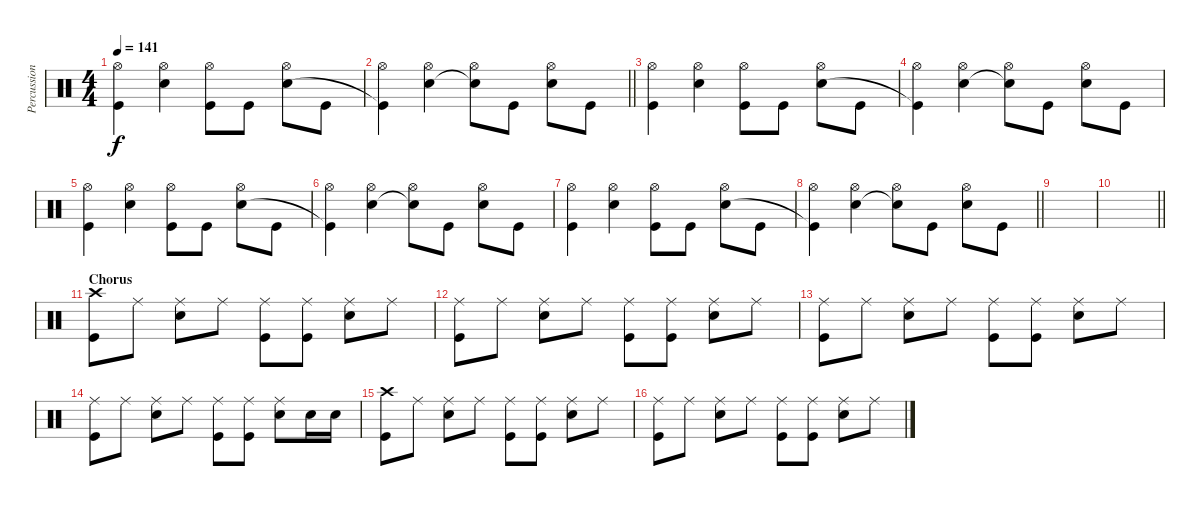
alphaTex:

\track ("Percussion" "Percussion") {instrument percussion}
\staff {score}
\articulation defaults
\ts (4 4)
\tempo 141
\clef neutral
\ks c
("Kick (hit)" "Hi-Hat (open)").4{dy f} ("Snare (hit) 2" "Hi-Hat (open)").4 ("Hi-Hat (open)" "Kick (hit)").8 "Kick (hit)".8 ("Hi-Hat (open)" "Snare (hit) 2").8 "Kick (hit)".8 |
\barLineRight lightlight
("Hi-Hat (open)" "Kick (hit)"{t}).4 ("Hi-Hat (open)" "Snare (hit) 2").4 ("Hi-Hat (open)" "Snare (hit) 2"{t}).8 "Kick (hit)".8 ("Hi-Hat (open)" "Snare (hit) 2").8 "Kick (hit)".8 |
("Kick (hit)" "Hi-Hat (open)").4 ("Snare (hit) 2" "Hi-Hat (open)").4 ("Hi-Hat (open)" "Kick (hit)").8 "Kick (hit)".8 ("Hi-Hat (open)" "Snare (hit) 2").8 "Kick (hit)".8 |
("Hi-Hat (open)" "Kick (hit)"{t}).4 ("Hi-Hat (open)" "Snare (hit) 2").4 ("Hi-Hat (open)" "Snare (hit) 2"{t}).8 "Kick (hit)".8 ("Hi-Hat (open)" "Snare (hit) 2").8 "Kick (hit)".8 |
("Kick (hit)" "Hi-Hat (open)").4 ("Snare (hit) 2" "Hi-Hat (open)").4 ("Hi-Hat (open)" "Kick (hit)").8 "Kick (hit)".8 ("Hi-Hat (open)" "Snare (hit) 2").8 "Kick (hit)".8 |
("Hi-Hat (open)" "Kick (hit)"{t}).4 ("Hi-Hat (open)" "Snare (hit) 2").4 ("Hi-Hat (open)" "Snare (hit) 2"{t}).8 "Kick (hit)".8 ("Hi-Hat (open)" "Snare (hit) 2").8 "Kick (hit)".8 |
("Kick (hit)" "Hi-Hat (open)").4 ("Snare (hit) 2" "Hi-Hat (open)").4 ("Hi-Hat (open)" "Kick (hit)").8 "Kick (hit)".8 ("Hi-Hat (open)" "Snare (hit) 2").8 "Kick (hit)".8 |
\barLineRight lightlight
("Hi-Hat (open)" "Kick (hit)"{t}).4 ("Hi-Hat (open)" "Snare (hit) 2").4 ("Hi-Hat (open)" "Snare (hit) 2"{t}).8 "Kick (hit)".8 ("Hi-Hat (open)" "Snare (hit) 2").8 "Kick (hit)".8 |
|
\barLineRight lightlight
|
\section ("" "Chorus")
("Crash high (hit)" "Kick (hit)").8 "Ride (middle)".8 ("Ride (middle)" "Snare (hit) 2").8 "Ride (middle)".8 ("Ride (middle)" "Kick (hit)").8 ("Ride (middle)" "Kick (hit)").8 ("Ride (middle)" "Snare (hit) 2").8 "Ride (middle)".8 |
("Ride (middle)" "Kick (hit)").8 "Ride (middle)".8 ("Ride (middle)" "Snare (hit) 2").8 "Ride (middle)".8 ("Ride (middle)" "Kick (hit)").8 ("Ride (middle)" "Kick (hit)").8 ("Ride (middle)" "Snare (hit) 2").8 "Ride (middle)".8 |
("Ride (middle)" "Kick (hit)").8 "Ride (middle)".8 ("Ride (middle)" "Snare (hit) 2").8 "Ride (middle)".8 ("Ride (middle)" "Kick (hit)").8 ("Ride (middle)" "Kick (hit)").8 ("Ride (middle)" "Snare (hit) 2").8 "Ride (middle)".8 |
("Ride (middle)" "Kick (hit)").8 "Ride (middle)".8 ("Ride (middle)" "Snare (hit) 2").8 "Ride (middle)".8 ("Ride (middle)" "Kick (hit)").8 ("Ride (middle)" "Kick (hit)").8 ("Ride (middle)" "Snare (hit) 2").8 "Snare (hit) 2".16 "Snare (hit) 2".16 |
("Crash high (hit)" "Kick (hit)").8 "Ride (middle)".8 ("Ride (middle)" "Snare (hit) 2").8 "Ride (middle)".8 ("Ride (middle)" "Kick (hit)").8 ("Ride (middle)" "Kick (hit)").8 ("Ride (middle)" "Snare (hit) 2").8 "Ride (middle)".8 |
("Ride (middle)" "Kick (hit)").8 "Ride (middle)".8 ("Ride (middle)" "Snare (hit) 2").8 "Ride (middle)".8 ("Ride (middle)" "Kick (hit)").8 ("Ride (middle)" "Kick (hit)").8 ("Ride (middle)" "Snare (hit) 2").8 "Ride (middle)".8
